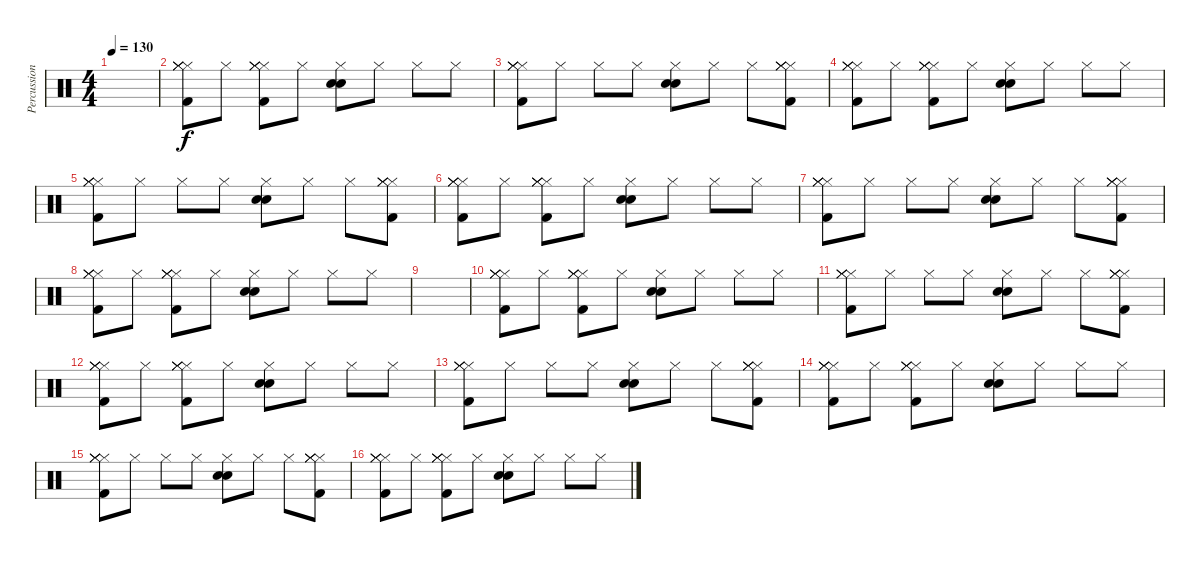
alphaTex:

\track ("Percussion" "Percussion") {instrument percussion}
\staff {score}
\articulation defaults
\ts (4 4)
\tempo 130
\clef neutral
\ks c
|
("Hi-Hat (closed)" "Kick (hit) 2" "Hi-Hat (closed)" "Hi-Hat (closed)" "Hi-Hat (closed)").8 "Hi-Hat (closed)".8 ("Hi-Hat (closed)" "Kick (hit) 2" "Hi-Hat (closed)" "Hi-Hat (closed)" "Hi-Hat (closed)").8 "Hi-Hat (closed)".8 ("Hi-Hat (closed)" "Snare (hit) 2" "Snare (hit) 2").8 "Hi-Hat (closed)".8 "Hi-Hat (closed)".8 "Hi-Hat (closed)".8 |
("Hi-Hat (closed)" "Hi-Hat (closed)" "Kick (hit) 2" "Hi-Hat (closed)" "Hi-Hat (closed)").8 "Hi-Hat (closed)".8 "Hi-Hat (closed)".8 "Hi-Hat (closed)".8 ("Hi-Hat (closed)" "Snare (hit) 2" "Snare (hit) 2").8 "Hi-Hat (closed)".8 "Hi-Hat (closed)".8 ("Hi-Hat (closed)" "Kick (hit) 2" "Hi-Hat (closed)" "Hi-Hat (closed)" "Hi-Hat (closed)").8 |
("Hi-Hat (closed)" "Kick (hit) 2" "Hi-Hat (closed)" "Hi-Hat (closed)" "Hi-Hat (closed)").8 "Hi-Hat (closed)".8 ("Hi-Hat (closed)" "Kick (hit) 2" "Hi-Hat (closed)" "Hi-Hat (closed)" "Hi-Hat (closed)").8 "Hi-Hat (closed)".8 ("Hi-Hat (closed)" "Snare (hit) 2" "Snare (hit) 2").8 "Hi-Hat (closed)".8 "Hi-Hat (closed)".8 "Hi-Hat (closed)".8 |
("Hi-Hat (closed)" "Hi-Hat (closed)" "Kick (hit) 2" "Hi-Hat (closed)" "Hi-Hat (closed)").8 "Hi-Hat (closed)".8 "Hi-Hat (closed)".8 "Hi-Hat (closed)".8 ("Hi-Hat (closed)" "Snare (hit) 2" "Snare (hit) 2").8 "Hi-Hat (closed)".8 "Hi-Hat (closed)".8 ("Hi-Hat (closed)" "Kick (hit) 2" "Hi-Hat (closed)" "Hi-Hat (closed)" "Hi-Hat (closed)").8 |
("Hi-Hat (closed)" "Kick (hit) 2" "Hi-Hat (closed)" "Hi-Hat (closed)" "Hi-Hat (closed)").8 "Hi-Hat (closed)".8 ("Hi-Hat (closed)" "Kick (hit) 2" "Hi-Hat (closed)" "Hi-Hat (closed)" "Hi-Hat (closed)").8 "Hi-Hat (closed)".8 ("Hi-Hat (closed)" "Snare (hit) 2" "Snare (hit) 2").8 "Hi-Hat (closed)".8 "Hi-Hat (closed)".8 "Hi-Hat (closed)".8 |
("Hi-Hat (closed)" "Hi-Hat (closed)" "Kick (hit) 2" "Hi-Hat (closed)" "Hi-Hat (closed)").8 "Hi-Hat (closed)".8 "Hi-Hat (closed)".8 "Hi-Hat (closed)".8 ("Hi-Hat (closed)" "Snare (hit) 2" "Snare (hit) 2").8 "Hi-Hat (closed)".8 "Hi-Hat (closed)".8 ("Hi-Hat (closed)" "Kick (hit) 2" "Hi-Hat (closed)" "Hi-Hat (closed)" "Hi-Hat (closed)").8 |
("Hi-Hat (closed)" "Kick (hit) 2" "Hi-Hat (closed)" "Hi-Hat (closed)" "Hi-Hat (closed)").8 "Hi-Hat (closed)".8 ("Hi-Hat (closed)" "Kick (hit) 2" "Hi-Hat (closed)" "Hi-Hat (closed)" "Hi-Hat (closed)").8 "Hi-Hat (closed)".8 ("Hi-Hat (closed)" "Snare (hit) 2" "Snare (hit) 2").8 "Hi-Hat (closed)".8 "Hi-Hat (closed)".8 "Hi-Hat (closed)".8 |
|
("Hi-Hat (closed)" "Kick (hit) 2" "Hi-Hat (closed)" "Hi-Hat (closed)" "Hi-Hat (closed)").8 "Hi-Hat (closed)".8 ("Hi-Hat (closed)" "Kick (hit) 2" "Hi-Hat (closed)" "Hi-Hat (closed)" "Hi-Hat (closed)").8 "Hi-Hat (closed)".8 ("Hi-Hat (closed)" "Snare (hit) 2" "Snare (hit) 2").8 "Hi-Hat (closed)".8 "Hi-Hat (closed)".8 "Hi-Hat (closed)".8 |
("Hi-Hat (closed)" "Hi-Hat (closed)" "Kick (hit) 2" "Hi-Hat (closed)" "Hi-Hat (closed)").8 "Hi-Hat (closed)".8 "Hi-Hat (closed)".8 "Hi-Hat (closed)".8 ("Hi-Hat (closed)" "Snare (hit) 2" "Snare (hit) 2").8 "Hi-Hat (closed)".8 "Hi-Hat (closed)".8 ("Hi-Hat (closed)" "Kick (hit) 2" "Hi-Hat (closed)" "Hi-Hat (closed)" "Hi-Hat (closed)").8 |
("Hi-Hat (closed)" "Kick (hit) 2" "Hi-Hat (closed)" "Hi-Hat (closed)" "Hi-Hat (closed)").8 "Hi-Hat (closed)".8 ("Hi-Hat (closed)" "Kick (hit) 2" "Hi-Hat (closed)" "Hi-Hat (closed)" "Hi-Hat (closed)").8 "Hi-Hat (closed)".8 ("Hi-Hat (closed)" "Snare (hit) 2" "Snare (hit) 2").8 "Hi-Hat (closed)".8 "Hi-Hat (closed)".8 "Hi-Hat (closed)".8 |
("Hi-Hat (closed)" "Hi-Hat (closed)" "Kick (hit) 2" "Hi-Hat (closed)" "Hi-Hat (closed)").8 "Hi-Hat (closed)".8 "Hi-Hat (closed)".8 "Hi-Hat (closed)".8 ("Hi-Hat (closed)" "Snare (hit) 2" "Snare (hit) 2").8 "Hi-Hat (closed)".8 "Hi-Hat (closed)".8 ("Hi-Hat (closed)" "Kick (hit) 2" "Hi-Hat (closed)" "Hi-Hat (closed)" "Hi-Hat (closed)").8 |
("Hi-Hat (closed)" "Kick (hit) 2" "Hi-Hat (closed)" "Hi-Hat (closed)" "Hi-Hat (closed)").8 "Hi-Hat (closed)".8 ("Hi-Hat (closed)" "Kick (hit) 2" "Hi-Hat (closed)" "Hi-Hat (closed)" "Hi-Hat (closed)").8 "Hi-Hat (closed)".8 ("Hi-Hat (closed)" "Snare (hit) 2" "Snare (hit) 2").8 "Hi-Hat (closed)".8 "Hi-Hat (closed)".8 "Hi-Hat (closed)".8 |
("Hi-Hat (closed)" "Hi-Hat (closed)" "Kick (hit) 2" "Hi-Hat (closed)" "Hi-Hat (closed)").8 "Hi-Hat (closed)".8 "Hi-Hat (closed)".8 "Hi-Hat (closed)".8 ("Hi-Hat (closed)" "Snare (hit) 2" "Snare (hit) 2").8 "Hi-Hat (closed)".8 "Hi-Hat (closed)".8 ("Hi-Hat (closed)" "Kick (hit) 2" "Hi-Hat (closed)" "Hi-Hat (closed)" "Hi-Hat (closed)").8 |
("Hi-Hat (closed)" "Kick (hit) 2" "Hi-Hat (closed)" "Hi-Hat (closed)" "Hi-Hat (closed)").8 "Hi-Hat (closed)".8 ("Hi-Hat (closed)" "Kick (hit) 2" "Hi-Hat (closed)" "Hi-Hat (closed)" "Hi-Hat (closed)").8 "Hi-Hat (closed)".8 ("Hi-Hat (closed)" "Snare (hit) 2" "Snare (hit) 2").8 "Hi-Hat (closed)".8 "Hi-Hat (closed)".8 "Hi-Hat (closed)".8
